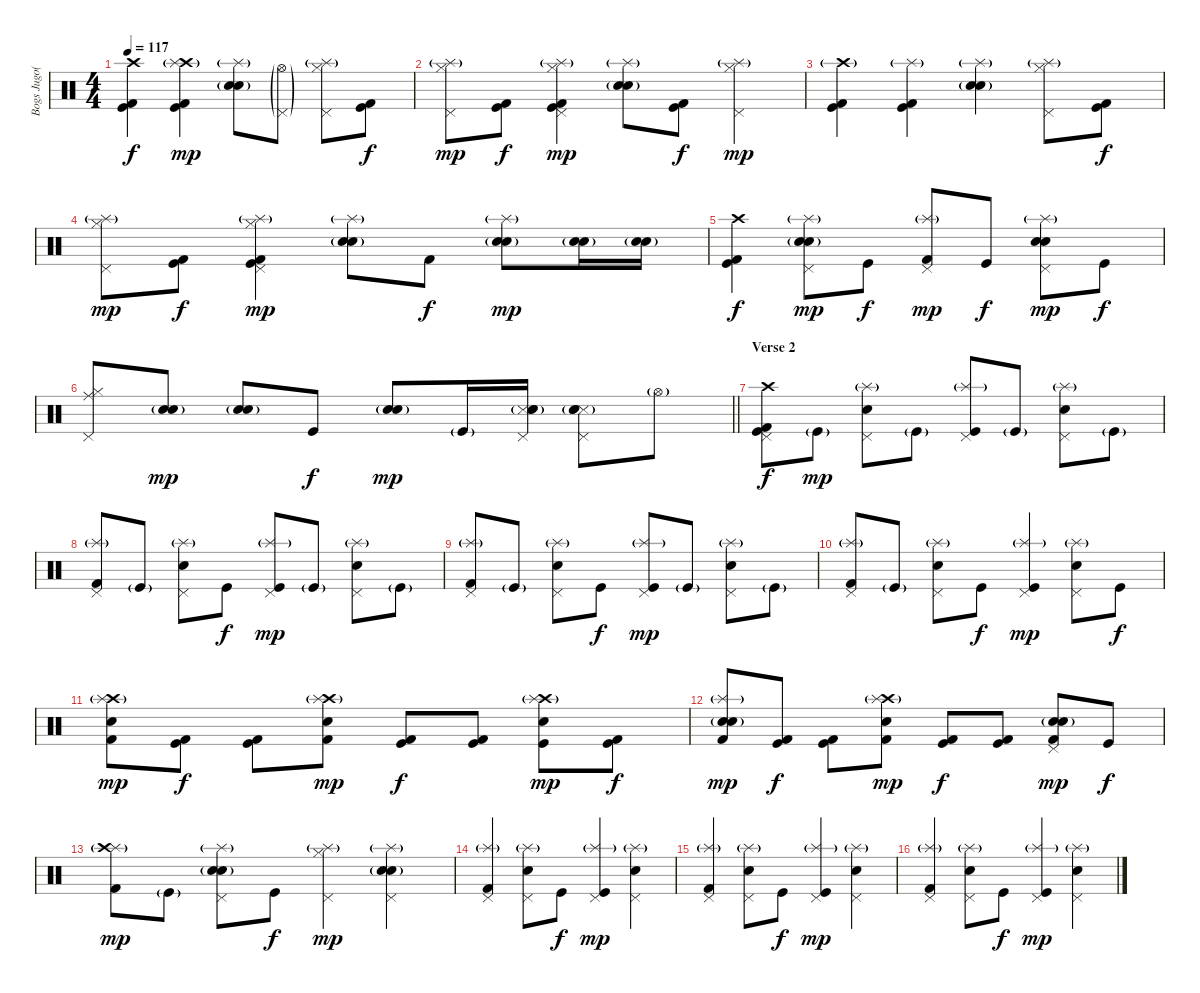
\track ("Bogs Jugo(Drums)" "Bogs Jugo(") {instrument percussion}
\staff {score}
\articulation defaults
\ts (4 4)
\tempo 117
\clef neutral
\ks c
("Crash high (hit)" "Kick (hit) 2" "Kick (hit)").4{dy f} ("Crash high (hit)"{g} "Kick (hit) 2" "Kick (hit)" "Splash (hit)"{g}).4{dy mp} ("Electric Snare (hit)" "Snare (hit) 2"{g} "Splash (hit)"{g}).8 ("Pedal Hi-Hat (hit)"{g} "Hi-Hat (open)"{g}).8 ("Pedal Hi-Hat (hit)" "Hi-Hat (closed)" "Splash (hit)"{g}).8 ("Kick (hit) 2" "Kick (hit)").8{dy f} |
("Pedal Hi-Hat (hit)" "Hi-Hat (closed)" "Splash (hit)"{g}).8{dy mp} ("Kick (hit) 2" "Kick (hit)").8{dy f} ("Pedal Hi-Hat (hit)" "Hi-Hat (closed)" "Splash (hit)"{g} "Kick (hit) 2" "Kick (hit)").4{dy mp} ("Electric Snare (hit)" "Snare (hit) 2"{g} "Splash (hit)"{g}).8 ("Kick (hit) 2" "Kick (hit)").8{dy f} ("Pedal Hi-Hat (hit)" "Hi-Hat (closed)" "Splash (hit)"{g}).4{dy mp} |
("Crash high (hit)"{g} "Kick (hit) 2" "Kick (hit)").4 ("Kick (hit) 2" "Kick (hit)" "Splash (hit)"{g}).4 ("Electric Snare (hit)" "Snare (hit) 2"{g} "Splash (hit)"{g}).4 ("Pedal Hi-Hat (hit)" "Hi-Hat (closed)" "Splash (hit)"{g}).8 ("Kick (hit) 2" "Kick (hit)").8{dy f} |
("Pedal Hi-Hat (hit)" "Hi-Hat (closed)" "Splash (hit)"{g}).8{dy mp} ("Kick (hit) 2" "Kick (hit)").8{dy f} ("Pedal Hi-Hat (hit)" "Hi-Hat (closed)" "Splash (hit)"{g} "Kick (hit) 2" "Kick (hit)").4{dy mp} ("Electric Snare (hit)" "Snare (hit) 2"{g} "Splash (hit)"{g}).8 "Kick (hit) 2".8{dy f} ("Electric Snare (hit)" "Snare (hit) 2"{g} "Splash (hit)"{g}).8{dy mp} ("Electric Snare (hit)" "Snare (hit) 2"{g}).16 ("Electric Snare (hit)" "Snare (hit) 2"{g}).16 |
("Crash high (hit)" "Kick (hit) 2" "Kick (hit)").4{dy f} ("Pedal Hi-Hat (hit)" "Electric Snare (hit)" "Snare (hit) 2"{g} "Splash (hit)"{g}).8{dy mp} "Kick (hit)".8{dy f} ("Pedal Hi-Hat (hit)" "Kick (hit) 2" "Splash (hit)"{g}).8{dy mp} "Kick (hit)".8{dy f} ("Pedal Hi-Hat (hit)" "Electric Snare (hit)" "Snare (hit) 2" "Splash (hit)"{g}).8{dy mp} "Kick (hit)".8{dy f} |
\barLineRight lightlight
("Pedal Hi-Hat (hit)" "Hi-Hat (closed)" "Ride (middle)").8 ("Electric Snare (hit)" "Snare (hit) 2"{g}).8{dy mp} ("Electric Snare (hit)" "Snare (hit) 2"{g}).8 "Kick (hit)".8{dy f} ("Electric Snare (hit)" "Snare (hit) 2"{g}).8{dy mp} "Kick (hit)"{g}.16 ("Snare (side stick) 3"{g} "Electric Snare (hit)"{g} "Snare (hit) 2"{g} "Pedal Hi-Hat (hit)").16 ("Snare (side stick) 3"{g} "Electric Snare (hit)"{g} "Snare (hit) 2"{g} "Pedal Hi-Hat (hit)").8 "Hi-Hat (open)"{g}.8 |
\section ("" "Verse 2")
("Kick (hit) 2" "Crash high (hit)" "Pedal Hi-Hat (hit)" "Kick (hit)").8{dy f} "Kick (hit)"{g}.8{dy mp} ("Electric Snare (hit)" "Splash (hit)"{g} "Pedal Hi-Hat (hit)").8 "Kick (hit)"{g}.8 ("Kick (hit)" "Splash (hit)"{g} "Pedal Hi-Hat (hit)").8 "Kick (hit)"{g}.8 ("Electric Snare (hit)" "Splash (hit)"{g} "Pedal Hi-Hat (hit)").8 "Kick (hit)"{g}.8 |
("Kick (hit) 2" "Splash (hit)"{g} "Pedal Hi-Hat (hit)").8 "Kick (hit)"{g}.8 ("Electric Snare (hit)" "Splash (hit)"{g} "Pedal Hi-Hat (hit)").8 "Kick (hit)".8{dy f} ("Kick (hit)" "Splash (hit)"{g} "Pedal Hi-Hat (hit)").8{dy mp} "Kick (hit)"{g}.8 ("Electric Snare (hit)" "Splash (hit)"{g} "Pedal Hi-Hat (hit)").8 "Kick (hit)"{g}.8 |
("Kick (hit) 2" "Splash (hit)"{g} "Pedal Hi-Hat (hit)").8 "Kick (hit)"{g}.8 ("Electric Snare (hit)" "Splash (hit)"{g} "Pedal Hi-Hat (hit)").8 "Kick (hit)".8{dy f} ("Kick (hit)" "Splash (hit)"{g} "Pedal Hi-Hat (hit)").8{dy mp} "Kick (hit)"{g}.8 ("Electric Snare (hit)" "Splash (hit)"{g} "Pedal Hi-Hat (hit)").8 "Kick (hit)"{g}.8 |
("Kick (hit) 2" "Splash (hit)"{g} "Pedal Hi-Hat (hit)").8 "Kick (hit)"{g}.8 ("Electric Snare (hit)" "Splash (hit)"{g} "Pedal Hi-Hat (hit)").8 "Kick (hit)".8{dy f} ("Kick (hit)" "Splash (hit)"{g} "Pedal Hi-Hat (hit)").4{dy mp} ("Electric Snare (hit)" "Splash (hit)"{g} "Pedal Hi-Hat (hit)").8 "Kick (hit)".8{dy f} |
("Crash high (hit)"{g} "Kick (hit) 2" "Electric Snare (hit)" "Splash (hit)"{g}).8{dy mp} ("Kick (hit) 2" "Kick (hit)").8{dy f} ("Kick (hit) 2" "Kick (hit)").8 ("Crash high (hit)"{g} "Kick (hit) 2" "Electric Snare (hit)" "Splash (hit)"{g}).8{dy mp} ("Kick (hit) 2" "Kick (hit)").8{dy f} ("Kick (hit) 2" "Kick (hit)").8 ("Crash high (hit)"{g} "Kick (hit)" "Electric Snare (hit)" "Splash (hit)"{g}).8{dy mp} ("Kick (hit) 2" "Kick (hit)").8{dy f} |
("Electric Snare (hit)" "Snare (hit) 2"{g} "Splash (hit)"{g} "Kick (hit) 2").8{dy mp} ("Kick (hit) 2" "Kick (hit)").8{dy f} ("Kick (hit) 2" "Kick (hit)").8 ("Crash high (hit)"{g} "Kick (hit) 2" "Electric Snare (hit)" "Splash (hit)"{g}).8{dy mp} ("Kick (hit) 2" "Kick (hit)").8{dy f} ("Kick (hit) 2" "Kick (hit)").8 ("Electric Snare (hit)" "Snare (hit) 2"{g} "Kick (hit) 2" "Pedal Hi-Hat (hit)").8{dy mp} "Kick (hit)".8{dy f} |
("Kick (hit) 2" "Splash (hit)"{g} "Crash high (hit)"{g}).8{dy mp} "Kick (hit)"{g}.8 ("Pedal Hi-Hat (hit)" "Electric Snare (hit)" "Snare (hit) 2"{g} "Splash (hit)"{g}).8 "Kick (hit)".8{dy f} ("Pedal Hi-Hat (hit)" "Hi-Hat (closed)" "Splash (hit)"{g}).4{dy mp} ("Pedal Hi-Hat (hit)" "Electric Snare (hit)" "Snare (hit) 2"{g} "Splash (hit)"{g}).4 |
("Kick (hit) 2" "Splash (hit)"{g} "Pedal Hi-Hat (hit)").4 ("Electric Snare (hit)" "Splash (hit)"{g} "Pedal Hi-Hat (hit)").8 "Kick (hit)".8{dy f} ("Kick (hit)" "Splash (hit)"{g} "Pedal Hi-Hat (hit)").4{dy mp} ("Electric Snare (hit)" "Splash (hit)"{g} "Pedal Hi-Hat (hit)").4 |
("Kick (hit) 2" "Splash (hit)"{g} "Pedal Hi-Hat (hit)").4 ("Electric Snare (hit)" "Splash (hit)"{g} "Pedal Hi-Hat (hit)").8 "Kick (hit)".8{dy f} ("Kick (hit)" "Splash (hit)"{g} "Pedal Hi-Hat (hit)").4{dy mp} ("Electric Snare (hit)" "Splash (hit)"{g} "Pedal Hi-Hat (hit)").4 |
("Kick (hit) 2" "Splash (hit)"{g} "Pedal Hi-Hat (hit)").4 ("Electric Snare (hit)" "Splash (hit)"{g} "Pedal Hi-Hat (hit)").8 "Kick (hit)".8{dy f} ("Kick (hit)" "Splash (hit)"{g} "Pedal Hi-Hat (hit)").4{dy mp} ("Electric Snare (hit)" "Splash (hit)"{g} "Pedal Hi-Hat (hit)").4
